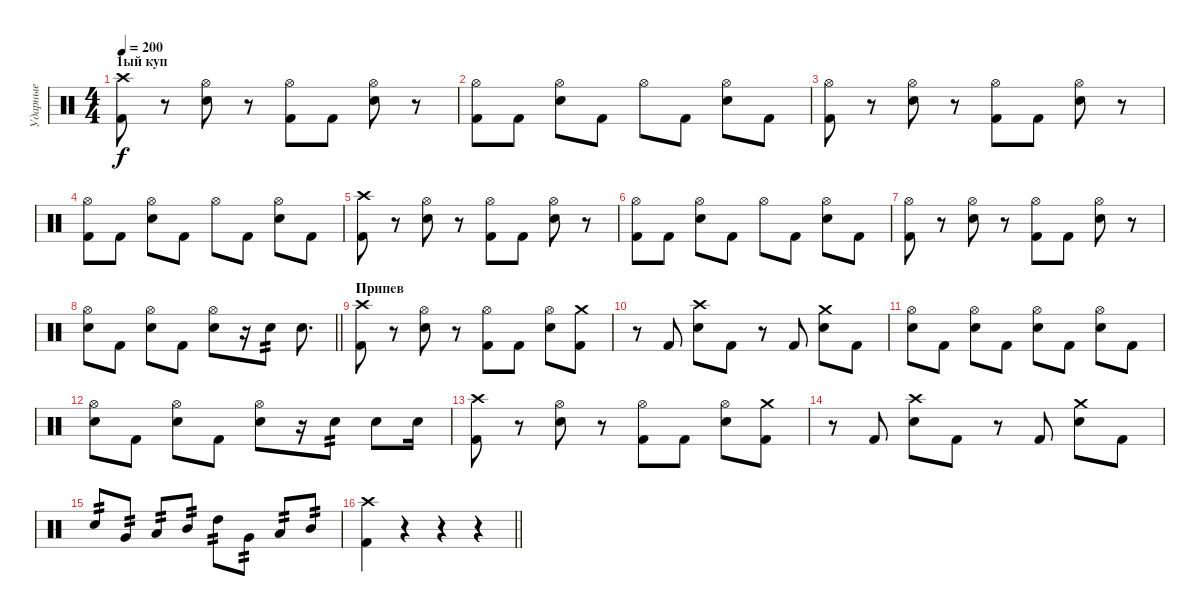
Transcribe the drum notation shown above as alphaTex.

\track ("Ударные" "Ударные") {instrument percussion}
\staff {score}
\articulation defaults
\ts (4 4)
\section ("" "1ый куп")
\tempo 200
\clef neutral
\ks c
("Crash high (hit)" "Kick (hit) 2").8{dy f} r.8 ("Hi-Hat (open)" "Electric Snare (hit)").8 r.8 ("Hi-Hat (open)" "Kick (hit) 2").8 "Kick (hit) 2".8 ("Hi-Hat (open)" "Electric Snare (hit)").8 r.8 |
("Hi-Hat (open)" "Kick (hit) 2").8 "Kick (hit) 2".8 ("Hi-Hat (open)" "Electric Snare (hit)").8 "Kick (hit) 2".8 "Hi-Hat (open)".8 "Kick (hit) 2".8 ("Hi-Hat (open)" "Electric Snare (hit)").8 "Kick (hit) 2".8 |
("Hi-Hat (open)" "Kick (hit) 2").8 r.8 ("Hi-Hat (open)" "Electric Snare (hit)").8 r.8 ("Hi-Hat (open)" "Kick (hit) 2").8 "Kick (hit) 2".8 ("Hi-Hat (open)" "Electric Snare (hit)").8 r.8 |
("Hi-Hat (open)" "Kick (hit) 2").8 "Kick (hit) 2".8 ("Hi-Hat (open)" "Electric Snare (hit)").8 "Kick (hit) 2".8 "Hi-Hat (open)".8 "Kick (hit) 2".8 ("Hi-Hat (open)" "Electric Snare (hit)").8 "Kick (hit) 2".8 |
("Crash high (hit)" "Kick (hit) 2").8 r.8 ("Hi-Hat (open)" "Electric Snare (hit)").8 r.8 ("Hi-Hat (open)" "Kick (hit) 2").8 "Kick (hit) 2".8 ("Hi-Hat (open)" "Electric Snare (hit)").8 r.8 |
("Hi-Hat (open)" "Kick (hit) 2").8 "Kick (hit) 2".8 ("Hi-Hat (open)" "Electric Snare (hit)").8 "Kick (hit) 2".8 "Hi-Hat (open)".8 "Kick (hit) 2".8 ("Hi-Hat (open)" "Electric Snare (hit)").8 "Kick (hit) 2".8 |
("Hi-Hat (open)" "Kick (hit) 2").8 r.8 ("Hi-Hat (open)" "Electric Snare (hit)").8 r.8 ("Hi-Hat (open)" "Kick (hit) 2").8 "Kick (hit) 2".8 ("Hi-Hat (open)" "Electric Snare (hit)").8 r.8 |
\barLineRight lightlight
("Hi-Hat (open)" "Electric Snare (hit)").8 "Kick (hit) 2".8 ("Hi-Hat (open)" "Electric Snare (hit)").8 "Kick (hit) 2".8 ("Hi-Hat (open)" "Electric Snare (hit)").8 r.16 "Electric Snare (hit)".8{tp 2} "Electric Snare (hit)".8{d} |
\section ("" "Припев")
("Crash high (hit)" "Kick (hit) 2").8 r.8 ("Hi-Hat (open)" "Electric Snare (hit)").8 r.8 ("Hi-Hat (open)" "Kick (hit) 2").8 "Kick (hit) 2".8 ("Hi-Hat (open)" "Electric Snare (hit)").8 ("Crash medium (hit)" "Kick (hit) 2").8 |
r.8 "Kick (hit) 2".8 ("Crash high (hit)" "Electric Snare (hit)").8 "Kick (hit) 2".8 r.8 "Kick (hit) 2".8 ("Crash medium (hit)" "Electric Snare (hit)").8 "Kick (hit) 2".8 |
("Hi-Hat (open)" "Electric Snare (hit)").8 "Kick (hit) 2".8 ("Hi-Hat (open)" "Electric Snare (hit)").8 "Kick (hit) 2".8 ("Hi-Hat (open)" "Electric Snare (hit)").8 "Kick (hit) 2".8 ("Hi-Hat (open)" "Electric Snare (hit)").8 "Kick (hit) 2".8 |
("Hi-Hat (open)" "Electric Snare (hit)").8 "Kick (hit) 2".8 ("Hi-Hat (open)" "Electric Snare (hit)").8 "Kick (hit) 2".8 ("Hi-Hat (open)" "Electric Snare (hit)").8 r.16 "Electric Snare (hit)".8{tp 2} "Electric Snare (hit)".8 "Electric Snare (hit)".16 |
("Crash high (hit)" "Kick (hit) 2").8 r.8 ("Hi-Hat (open)" "Electric Snare (hit)").8 r.8 ("Hi-Hat (open)" "Kick (hit) 2").8 "Kick (hit) 2".8 ("Hi-Hat (open)" "Electric Snare (hit)").8 ("Crash medium (hit)" "Kick (hit) 2").8 |
r.8 "Kick (hit) 2".8 ("Crash high (hit)" "Electric Snare (hit)").8 "Kick (hit) 2".8 r.8 "Kick (hit) 2".8 ("Crash medium (hit)" "Electric Snare (hit)").8 "Kick (hit) 2".8 |
"Electric Snare (hit)".8{tp 2} "Very Low Tom (hit)".8{tp 2} "Low Tom (hit)".8{tp 2} "Mid Tom (hit)".8{tp 2} "High Tom (hit)".8{tp 2} "Very Low Tom (hit)".8{tp 2} "Low Tom (hit)".8{tp 2} "Mid Tom (hit)".8{tp 2} |
\barLineRight lightlight
("Crash high (hit)" "Kick (hit) 2").4 r.4 r.4 r.4
